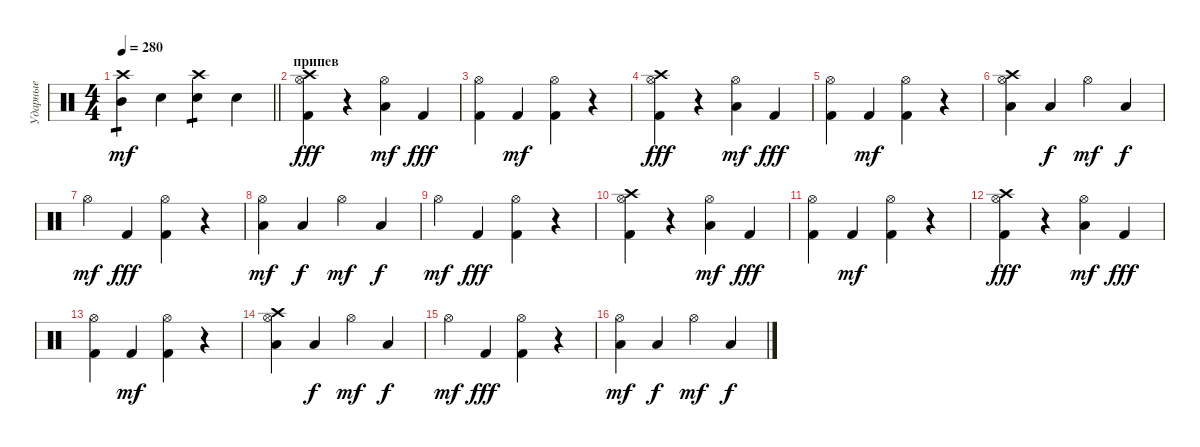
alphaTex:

\track ("Ударные" "Ударные") {instrument percussion}
\staff {score}
\articulation defaults
\ts (4 4)
\tempo 280
\clef neutral
\barLineRight lightlight
\ks c
("Mid Tom (hit)" "Crash high (hit)").4{tp 1 dy mf} "Snare (hit) 2".4 ("Snare (hit) 2" "Crash high (hit)").4{tp 1} "Snare (hit) 2".4 |
\section ("" "припев")
("Hi-Hat (open)" "Crash high (hit)" "Kick (hit) 2").4{dy fff} r.4 ("Hi-Hat (open)" "Low Tom (hit)").4{dy mf} "Kick (hit) 2".4{dy fff} |
("Hi-Hat (open)" "Kick (hit) 2").4 "Kick (hit) 2".4{dy mf} ("Hi-Hat (open)" "Kick (hit) 2").4 r.4 |
("Hi-Hat (open)" "Crash high (hit)" "Kick (hit) 2").4{dy fff} r.4 ("Hi-Hat (open)" "Low Tom (hit)").4{dy mf} "Kick (hit) 2".4{dy fff} |
("Hi-Hat (open)" "Kick (hit) 2").4 "Kick (hit) 2".4{dy mf} ("Hi-Hat (open)" "Kick (hit) 2").4 r.4 |
("Hi-Hat (open)" "Crash high (hit)" "Low Tom (hit)").4 "Low Tom (hit)".4{dy f} "Hi-Hat (open)".4{dy mf} "Low Tom (hit)".4{dy f} |
"Hi-Hat (open)".4{dy mf} "Kick (hit) 2".4{dy fff} ("Hi-Hat (open)" "Kick (hit) 2").4 r.4 |
("Hi-Hat (open)" "Low Tom (hit)").4{dy mf} "Low Tom (hit)".4{dy f} "Hi-Hat (open)".4{dy mf} "Low Tom (hit)".4{dy f} |
"Hi-Hat (open)".4{dy mf} "Kick (hit) 2".4{dy fff} ("Hi-Hat (open)" "Kick (hit) 2").4 r.4 |
("Hi-Hat (open)" "Crash high (hit)" "Kick (hit) 2").4 r.4 ("Hi-Hat (open)" "Low Tom (hit)").4{dy mf} "Kick (hit) 2".4{dy fff} |
("Hi-Hat (open)" "Kick (hit) 2").4 "Kick (hit) 2".4{dy mf} ("Hi-Hat (open)" "Kick (hit) 2").4 r.4 |
("Hi-Hat (open)" "Crash high (hit)" "Kick (hit) 2").4{dy fff} r.4 ("Hi-Hat (open)" "Low Tom (hit)").4{dy mf} "Kick (hit) 2".4{dy fff} |
("Hi-Hat (open)" "Kick (hit) 2").4 "Kick (hit) 2".4{dy mf} ("Hi-Hat (open)" "Kick (hit) 2").4 r.4 |
("Hi-Hat (open)" "Crash high (hit)" "Low Tom (hit)").4 "Low Tom (hit)".4{dy f} "Hi-Hat (open)".4{dy mf} "Low Tom (hit)".4{dy f} |
"Hi-Hat (open)".4{dy mf} "Kick (hit) 2".4{dy fff} ("Hi-Hat (open)" "Kick (hit) 2").4 r.4 |
("Hi-Hat (open)" "Low Tom (hit)").4{dy mf} "Low Tom (hit)".4{dy f} "Hi-Hat (open)".4{dy mf} "Low Tom (hit)".4{dy f}
